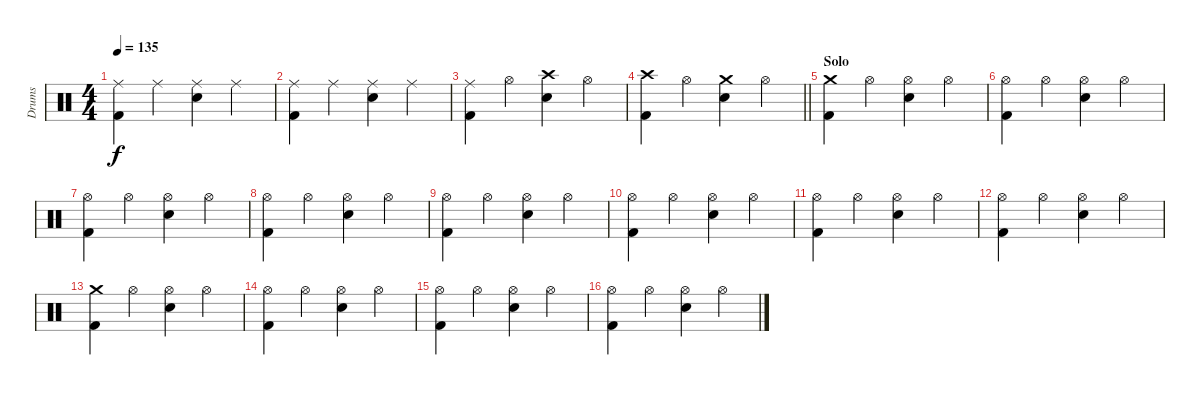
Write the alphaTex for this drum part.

\track ("Drums" "Drums") {instrument percussion}
\staff {score}
\articulation defaults
\ts (4 4)
\tempo 135
\clef neutral
\ks c
("Ride (middle)" "Kick (hit) 2").4{dy f} "Ride (middle)".4 ("Ride (middle)" "Electric Snare (hit)").4 "Ride (middle)".4 |
("Ride (middle)" "Kick (hit) 2").4 "Ride (middle)".4 ("Ride (middle)" "Electric Snare (hit)").4 "Ride (middle)".4 |
("Ride (middle)" "Kick (hit) 2").4 "Hi-Hat (open)".4 ("Crash high (hit)" "Electric Snare (hit)").4 "Hi-Hat (open)".4 |
\barLineRight lightlight
("Crash high (hit)" "Kick (hit) 2").4 "Hi-Hat (open)".4 ("Crash medium (hit)" "Electric Snare (hit)").4 "Hi-Hat (open)".4 |
\section ("" "Solo")
("Crash medium (hit)" "Kick (hit) 2").4 "Hi-Hat (open)".4 ("Hi-Hat (open)" "Electric Snare (hit)").4 "Hi-Hat (open)".4 |
("Hi-Hat (open)" "Kick (hit) 2").4 "Hi-Hat (open)".4 ("Hi-Hat (open)" "Electric Snare (hit)").4 "Hi-Hat (open)".4 |
("Hi-Hat (open)" "Kick (hit) 2").4 "Hi-Hat (open)".4 ("Hi-Hat (open)" "Electric Snare (hit)").4 "Hi-Hat (open)".4 |
("Hi-Hat (open)" "Kick (hit) 2").4 "Hi-Hat (open)".4 ("Hi-Hat (open)" "Electric Snare (hit)").4 "Hi-Hat (open)".4 |
("Hi-Hat (open)" "Kick (hit) 2").4 "Hi-Hat (open)".4 ("Hi-Hat (open)" "Electric Snare (hit)").4 "Hi-Hat (open)".4 |
("Hi-Hat (open)" "Kick (hit) 2").4 "Hi-Hat (open)".4 ("Hi-Hat (open)" "Electric Snare (hit)").4 "Hi-Hat (open)".4 |
("Hi-Hat (open)" "Kick (hit) 2").4 "Hi-Hat (open)".4 ("Hi-Hat (open)" "Electric Snare (hit)").4 "Hi-Hat (open)".4 |
("Hi-Hat (open)" "Kick (hit) 2").4 "Hi-Hat (open)".4 ("Hi-Hat (open)" "Electric Snare (hit)").4 "Hi-Hat (open)".4 |
("Crash medium (hit)" "Kick (hit) 2").4 "Hi-Hat (open)".4 ("Hi-Hat (open)" "Electric Snare (hit)").4 "Hi-Hat (open)".4 |
("Hi-Hat (open)" "Kick (hit) 2").4 "Hi-Hat (open)".4 ("Hi-Hat (open)" "Electric Snare (hit)").4 "Hi-Hat (open)".4 |
("Hi-Hat (open)" "Kick (hit) 2").4 "Hi-Hat (open)".4 ("Hi-Hat (open)" "Electric Snare (hit)").4 "Hi-Hat (open)".4 |
("Hi-Hat (open)" "Kick (hit) 2").4 "Hi-Hat (open)".4 ("Hi-Hat (open)" "Electric Snare (hit)").4 "Hi-Hat (open)".4
